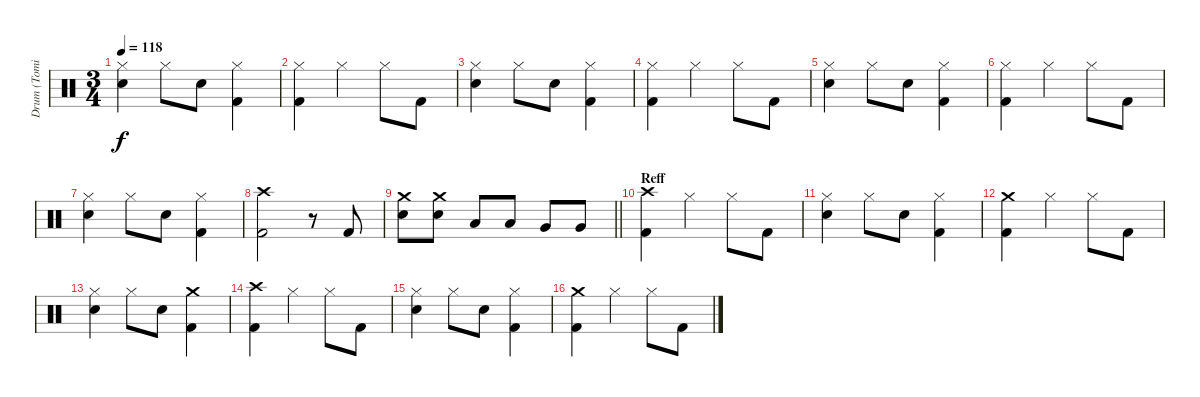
\track ("Drum (Tomi)" "Drum (Tomi") {instrument percussion}
\staff {score}
\articulation defaults
\ts (3 4)
\tempo 118
\clef neutral
\ks c
("Hi-Hat (closed)" "Electric Snare (hit)").4{dy f} "Hi-Hat (closed)".8 "Electric Snare (hit)".8 ("Hi-Hat (closed)" "Kick (hit) 2").4 |
("Hi-Hat (closed)" "Kick (hit) 2").4 "Hi-Hat (closed)".4 "Hi-Hat (closed)".8 "Kick (hit) 2".8 |
("Hi-Hat (closed)" "Electric Snare (hit)").4 "Hi-Hat (closed)".8 "Electric Snare (hit)".8 ("Hi-Hat (closed)" "Kick (hit) 2").4 |
("Hi-Hat (closed)" "Kick (hit) 2").4 "Hi-Hat (closed)".4 "Hi-Hat (closed)".8 "Kick (hit) 2".8 |
("Hi-Hat (closed)" "Electric Snare (hit)").4 "Hi-Hat (closed)".8 "Electric Snare (hit)".8 ("Hi-Hat (closed)" "Kick (hit) 2").4 |
("Hi-Hat (closed)" "Kick (hit) 2").4 "Hi-Hat (closed)".4 "Hi-Hat (closed)".8 "Kick (hit) 2".8 |
("Hi-Hat (closed)" "Electric Snare (hit)").4 "Hi-Hat (closed)".8 "Electric Snare (hit)".8 ("Hi-Hat (closed)" "Kick (hit) 2").4 |
("Crash high (hit)" "Kick (hit) 2").2 r.8 "Kick (hit) 2".8 |
\barLineRight lightlight
("Crash medium (hit)" "Electric Snare (hit)").8 ("Crash medium (hit)" "Electric Snare (hit)").8 "Low Tom (hit)".8 "Low Tom (hit)".8 "Very Low Tom (hit)".8 "Very Low Tom (hit)".8 |
\section ("" "Reff")
("Crash high (hit)" "Kick (hit) 2").4 "Hi-Hat (closed)".4 "Hi-Hat (closed)".8 "Kick (hit) 2".8 |
("Hi-Hat (closed)" "Electric Snare (hit)").4 "Hi-Hat (closed)".8 "Electric Snare (hit)".8 ("Hi-Hat (closed)" "Kick (hit) 2").4 |
("Crash medium (hit)" "Kick (hit) 2").4 "Hi-Hat (closed)".4 "Hi-Hat (closed)".8 "Kick (hit) 2".8 |
("Hi-Hat (closed)" "Electric Snare (hit)").4 "Hi-Hat (closed)".8 "Electric Snare (hit)".8 ("Crash medium (hit)" "Kick (hit) 2").4 |
("Crash high (hit)" "Kick (hit) 2").4 "Hi-Hat (closed)".4 "Hi-Hat (closed)".8 "Kick (hit) 2".8 |
("Hi-Hat (closed)" "Electric Snare (hit)").4 "Hi-Hat (closed)".8 "Electric Snare (hit)".8 ("Hi-Hat (closed)" "Kick (hit) 2").4 |
("Crash medium (hit)" "Kick (hit) 2").4 "Hi-Hat (closed)".4 "Hi-Hat (closed)".8 "Kick (hit) 2".8
